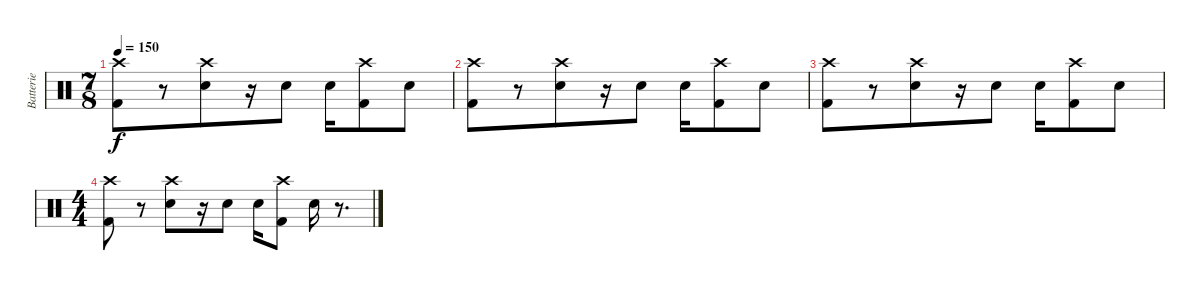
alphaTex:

\track ("Batterie" "Batterie") {instrument percussion}
\staff {score}
\articulation defaults
\ts (7 8)
\tempo 150
\clef neutral
\ks c
("Crash high (hit)" "Kick (hit) 2").8{dy f} r.8 ("Crash high (hit)" "Electric Snare (hit)").8 r.16 "Electric Snare (hit)".8 "Electric Snare (hit)".16 ("Crash high (hit)" "Kick (hit) 2").8 "Electric Snare (hit)".8 |
("Crash high (hit)" "Kick (hit) 2").8 r.8 ("Crash high (hit)" "Electric Snare (hit)").8 r.16 "Electric Snare (hit)".8 "Electric Snare (hit)".16 ("Crash high (hit)" "Kick (hit) 2").8 "Electric Snare (hit)".8 |
("Crash high (hit)" "Kick (hit) 2").8 r.8 ("Crash high (hit)" "Electric Snare (hit)").8 r.16 "Electric Snare (hit)".8 "Electric Snare (hit)".16 ("Crash high (hit)" "Kick (hit) 2").8 "Electric Snare (hit)".8 |
\ts (4 4)
("Crash high (hit)" "Kick (hit) 2").8 r.8 ("Crash high (hit)" "Electric Snare (hit)").8 r.16 "Electric Snare (hit)".8 "Electric Snare (hit)".16 ("Crash high (hit)" "Kick (hit) 2").8 "Electric Snare (hit)".16 r.8{d}
